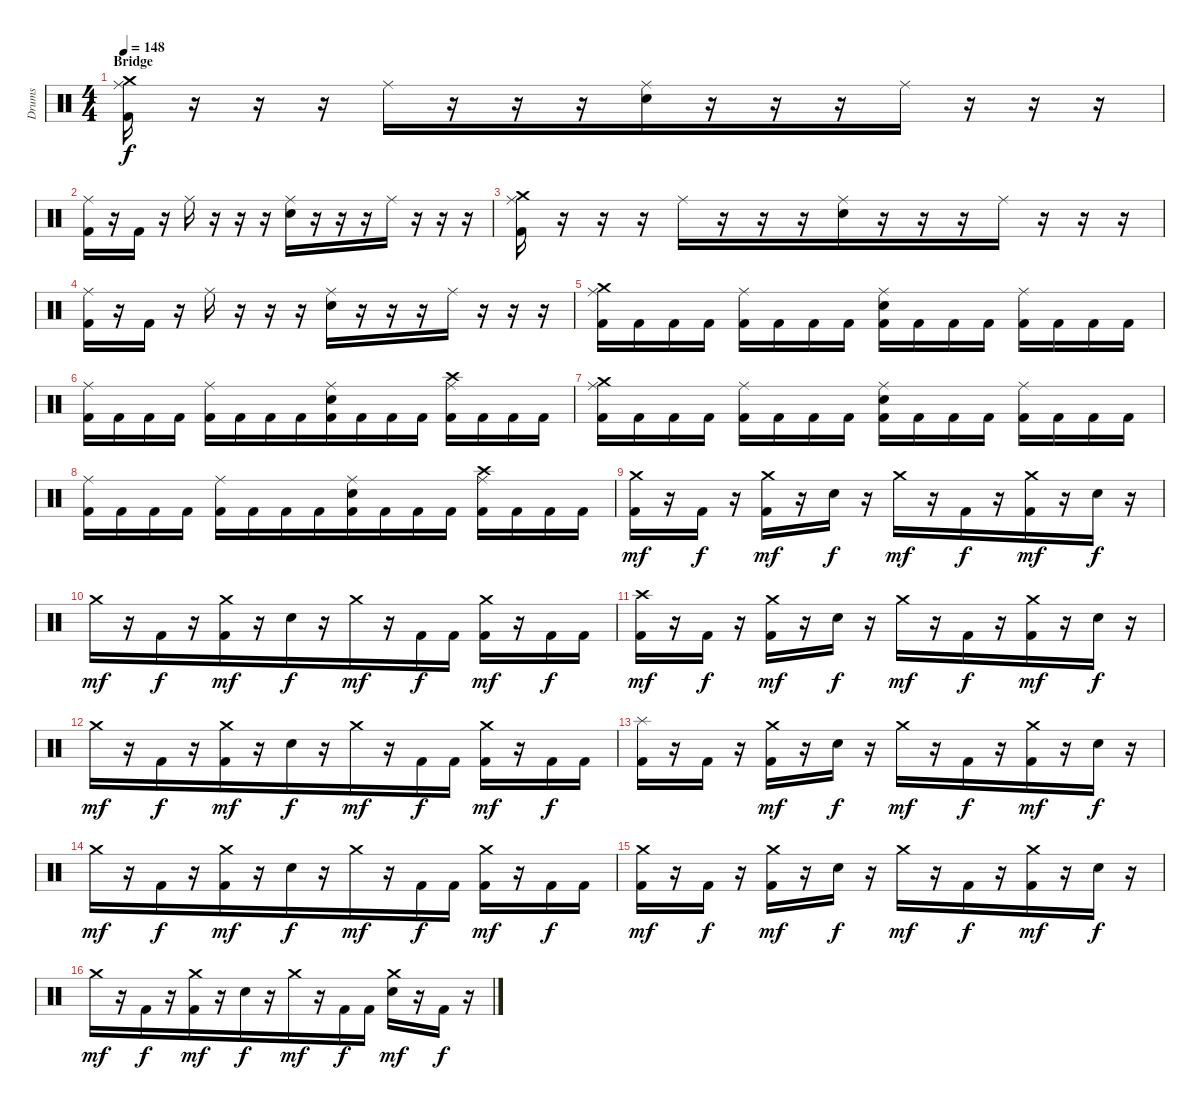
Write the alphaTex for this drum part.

\track ("Drums" "Drums") {instrument percussion}
\staff {score}
\articulation defaults
\ts (4 4)
\section ("" "Bridge")
\tempo 148
\clef neutral
\ks c
("Crash medium (hit)" "Ride (middle)" "Kick (hit) 2").16{dy f} r.16{beam merge} r.16{beam merge} r.16 "Ride (middle)".16{beam merge} r.16{beam merge} r.16{beam merge} r.16 ("Ride (middle)" "Snare (hit) 2").16{beam merge} r.16{beam merge} r.16{beam merge} r.16 "Ride (middle)".16 r.16 r.16 r.16 |
("Ride (middle)" "Kick (hit) 2").16 r.16 "Kick (hit) 2".16 r.16 "Ride (middle)".16 r.16 r.16{beam merge} r.16{beam merge} ("Ride (middle)" "Snare (hit) 2").16{beam merge} r.16 r.16{beam merge} r.16 "Ride (middle)".16{beam merge} r.16 r.16 r.16 |
("Crash medium (hit)" "Ride (middle)" "Kick (hit) 2").16 r.16{beam merge} r.16{beam merge} r.16 "Ride (middle)".16{beam merge} r.16{beam merge} r.16{beam merge} r.16 ("Ride (middle)" "Snare (hit) 2").16{beam merge} r.16{beam merge} r.16{beam merge} r.16 "Ride (middle)".16 r.16 r.16 r.16 |
("Ride (middle)" "Kick (hit) 2").16 r.16 "Kick (hit) 2".16 r.16 "Ride (middle)".16 r.16 r.16{beam merge} r.16{beam merge} ("Ride (middle)" "Snare (hit) 2").16{beam merge} r.16 r.16{beam merge} r.16 "Ride (middle)".16{beam merge} r.16 r.16 r.16 |
("Crash medium (hit)" "Ride (middle)" "Kick (hit) 2").16 "Kick (hit) 2".16{beam merge} "Kick (hit) 2".16{beam merge} "Kick (hit) 2".16 ("Ride (middle)" "Kick (hit) 2").16{beam merge} "Kick (hit) 2".16{beam merge} "Kick (hit) 2".16{beam merge} "Kick (hit) 2".16 ("Ride (middle)" "Snare (hit) 2" "Kick (hit) 2").16{beam merge} "Kick (hit) 2".16{beam merge} "Kick (hit) 2".16{beam merge} "Kick (hit) 2".16 ("Ride (middle)" "Kick (hit) 2").16 "Kick (hit) 2".16 "Kick (hit) 2".16 "Kick (hit) 2".16 |
("Ride (middle)" "Kick (hit) 2").16 "Kick (hit) 2".16 "Kick (hit) 2".16 "Kick (hit) 2".16 ("Ride (middle)" "Kick (hit) 2").16 "Kick (hit) 2".16 "Kick (hit) 2".16{beam merge} "Kick (hit) 2".16{beam merge} ("Ride (middle)" "Snare (hit) 2" "Kick (hit) 2").16{beam merge} "Kick (hit) 2".16 "Kick (hit) 2".16{beam merge} "Kick (hit) 2".16 ("Crash high (hit)" "Ride (middle)" "Kick (hit) 2").16{beam merge} "Kick (hit) 2".16 "Kick (hit) 2".16 "Kick (hit) 2".16 |
("Crash medium (hit)" "Ride (middle)" "Kick (hit) 2").16 "Kick (hit) 2".16{beam merge} "Kick (hit) 2".16{beam merge} "Kick (hit) 2".16 ("Ride (middle)" "Kick (hit) 2").16{beam merge} "Kick (hit) 2".16{beam merge} "Kick (hit) 2".16{beam merge} "Kick (hit) 2".16 ("Ride (middle)" "Snare (hit) 2" "Kick (hit) 2").16{beam merge} "Kick (hit) 2".16{beam merge} "Kick (hit) 2".16{beam merge} "Kick (hit) 2".16 ("Ride (middle)" "Kick (hit) 2").16 "Kick (hit) 2".16 "Kick (hit) 2".16 "Kick (hit) 2".16 |
("Ride (middle)" "Kick (hit) 2").16 "Kick (hit) 2".16 "Kick (hit) 2".16 "Kick (hit) 2".16 ("Ride (middle)" "Kick (hit) 2").16 "Kick (hit) 2".16 "Kick (hit) 2".16{beam merge} "Kick (hit) 2".16{beam merge} ("Ride (middle)" "Snare (hit) 2" "Kick (hit) 2").16{beam merge} "Kick (hit) 2".16 "Kick (hit) 2".16{beam merge} "Kick (hit) 2".16 ("Crash high (hit)" "Ride (middle)" "Kick (hit) 2").16{beam merge} "Kick (hit) 2".16 "Kick (hit) 2".16 "Kick (hit) 2".16 |
("Crash medium (hit)" "Kick (hit) 2").16{dy mf} r.16{beam merge} "Kick (hit) 2".16{dy f} r.16 ("Crash medium (hit)" "Kick (hit) 2").16{dy mf} r.16 "Snare (hit) 2".16{dy f} r.16 "Crash medium (hit)".16{dy mf beam merge} r.16 "Kick (hit) 2".16{dy f beam merge} r.16 ("Crash medium (hit)" "Kick (hit) 2").16{dy mf} r.16 "Snare (hit) 2".16{dy f} r.16 |
"Crash medium (hit)".16{dy mf} r.16 "Kick (hit) 2".16{dy f beam merge} r.16 ("Crash medium (hit)" "Kick (hit) 2").16{dy mf} r.16 "Snare (hit) 2".16{dy f beam merge} r.16{beam merge} "Crash medium (hit)".16{dy mf beam merge} r.16 "Kick (hit) 2".16{dy f} "Kick (hit) 2".16 ("Crash medium (hit)" "Kick (hit) 2").16{dy mf} r.16 "Kick (hit) 2".16{dy f} "Kick (hit) 2".16 |
("Crash high (hit)" "Kick (hit) 2").16{dy mf} r.16{beam merge} "Kick (hit) 2".16{dy f} r.16 ("Crash medium (hit)" "Kick (hit) 2").16{dy mf} r.16 "Snare (hit) 2".16{dy f} r.16 "Crash medium (hit)".16{dy mf beam merge} r.16 "Kick (hit) 2".16{dy f beam merge} r.16 ("Crash medium (hit)" "Kick (hit) 2").16{dy mf} r.16 "Snare (hit) 2".16{dy f} r.16 |
"Crash medium (hit)".16{dy mf} r.16 "Kick (hit) 2".16{dy f beam merge} r.16 ("Crash medium (hit)" "Kick (hit) 2").16{dy mf} r.16 "Snare (hit) 2".16{dy f beam merge} r.16{beam merge} "Crash medium (hit)".16{dy mf beam merge} r.16 "Kick (hit) 2".16{dy f} "Kick (hit) 2".16 ("Crash medium (hit)" "Kick (hit) 2").16{dy mf} r.16 "Kick (hit) 2".16{dy f} "Kick (hit) 2".16 |
("Splash (hit)" "Kick (hit) 2").16 r.16{beam merge} "Kick (hit) 2".16 r.16 ("Crash medium (hit)" "Kick (hit) 2").16{dy mf} r.16 "Snare (hit) 2".16{dy f} r.16 "Crash medium (hit)".16{dy mf beam merge} r.16 "Kick (hit) 2".16{dy f beam merge} r.16 ("Crash medium (hit)" "Kick (hit) 2").16{dy mf} r.16 "Snare (hit) 2".16{dy f} r.16 |
"Crash medium (hit)".16{dy mf} r.16 "Kick (hit) 2".16{dy f beam merge} r.16 ("Crash medium (hit)" "Kick (hit) 2").16{dy mf} r.16 "Snare (hit) 2".16{dy f beam merge} r.16{beam merge} "Crash medium (hit)".16{dy mf beam merge} r.16 "Kick (hit) 2".16{dy f} "Kick (hit) 2".16 ("Crash medium (hit)" "Kick (hit) 2").16{dy mf} r.16 "Kick (hit) 2".16{dy f} "Kick (hit) 2".16 |
("Crash medium (hit)" "Kick (hit) 2").16{dy mf} r.16{beam merge} "Kick (hit) 2".16{dy f} r.16 ("Crash medium (hit)" "Kick (hit) 2").16{dy mf} r.16 "Snare (hit) 2".16{dy f} r.16 "Crash medium (hit)".16{dy mf beam merge} r.16 "Kick (hit) 2".16{dy f beam merge} r.16 ("Crash medium (hit)" "Kick (hit) 2").16{dy mf} r.16 "Snare (hit) 2".16{dy f} r.16 |
"Crash medium (hit)".16{dy mf} r.16 "Kick (hit) 2".16{dy f beam merge} r.16 ("Crash medium (hit)" "Kick (hit) 2").16{dy mf} r.16 "Snare (hit) 2".16{dy f beam merge} r.16{beam merge} "Crash medium (hit)".16{dy mf beam merge} r.16 "Kick (hit) 2".16{dy f} "Kick (hit) 2".16 ("Crash medium (hit)" "Snare (hit) 2").16{dy mf} r.16 "Kick (hit) 2".16{dy f} r.16
